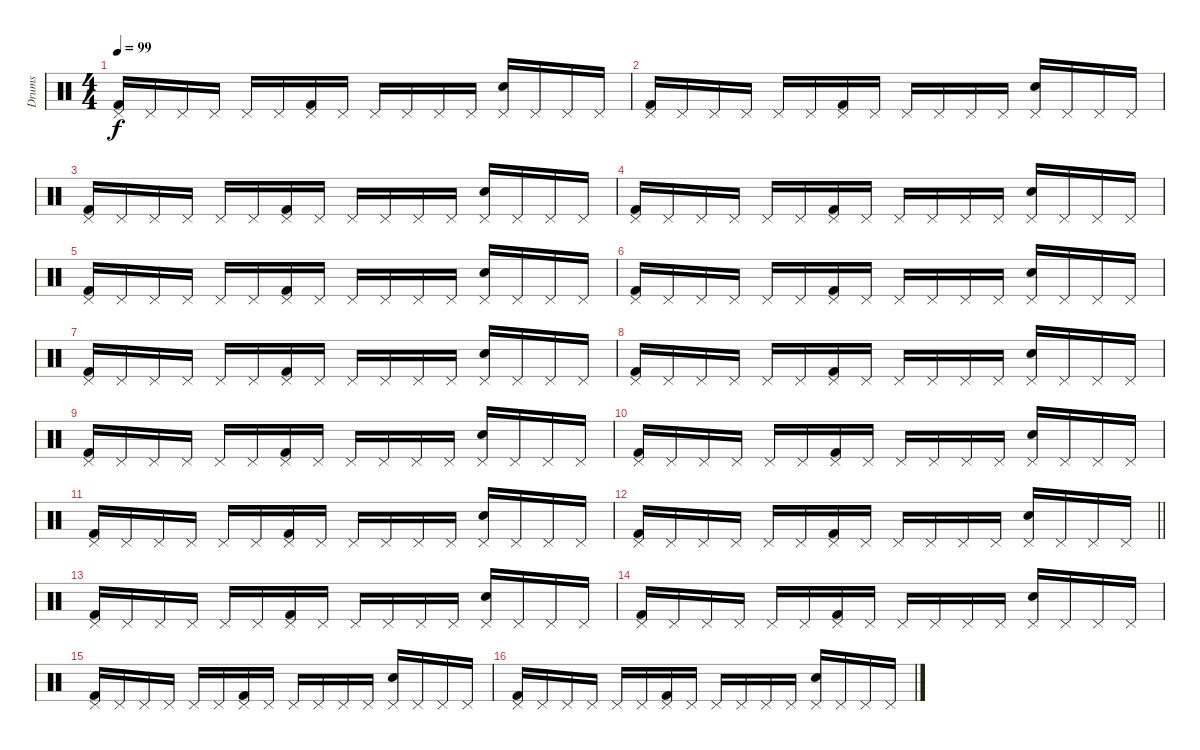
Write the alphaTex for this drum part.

\track ("Drums" "Drums") {instrument percussion}
\staff {score}
\articulation defaults
\ts (4 4)
\tempo 99
\clef neutral
\ks c
("Pedal Hi-Hat (hit)" "Kick (hit) 2").16{dy f} "Pedal Hi-Hat (hit)".16 "Pedal Hi-Hat (hit)".16 "Pedal Hi-Hat (hit)".16 "Pedal Hi-Hat (hit)".16 "Pedal Hi-Hat (hit)".16 ("Pedal Hi-Hat (hit)" "Kick (hit) 2").16 "Pedal Hi-Hat (hit)".16 "Pedal Hi-Hat (hit)".16 "Pedal Hi-Hat (hit)".16 "Pedal Hi-Hat (hit)".16 "Pedal Hi-Hat (hit)".16 ("Pedal Hi-Hat (hit)" "Snare (hit) 2").16 "Pedal Hi-Hat (hit)".16 "Pedal Hi-Hat (hit)".16 "Pedal Hi-Hat (hit)".16 |
("Pedal Hi-Hat (hit)" "Kick (hit) 2").16 "Pedal Hi-Hat (hit)".16 "Pedal Hi-Hat (hit)".16 "Pedal Hi-Hat (hit)".16 "Pedal Hi-Hat (hit)".16 "Pedal Hi-Hat (hit)".16 ("Pedal Hi-Hat (hit)" "Kick (hit) 2").16 "Pedal Hi-Hat (hit)".16 "Pedal Hi-Hat (hit)".16 "Pedal Hi-Hat (hit)".16 "Pedal Hi-Hat (hit)".16 "Pedal Hi-Hat (hit)".16 ("Pedal Hi-Hat (hit)" "Snare (hit) 2").16 "Pedal Hi-Hat (hit)".16 "Pedal Hi-Hat (hit)".16 "Pedal Hi-Hat (hit)".16 |
("Pedal Hi-Hat (hit)" "Kick (hit) 2").16 "Pedal Hi-Hat (hit)".16 "Pedal Hi-Hat (hit)".16 "Pedal Hi-Hat (hit)".16 "Pedal Hi-Hat (hit)".16 "Pedal Hi-Hat (hit)".16 ("Pedal Hi-Hat (hit)" "Kick (hit) 2").16 "Pedal Hi-Hat (hit)".16 "Pedal Hi-Hat (hit)".16 "Pedal Hi-Hat (hit)".16 "Pedal Hi-Hat (hit)".16 "Pedal Hi-Hat (hit)".16 ("Pedal Hi-Hat (hit)" "Snare (hit) 2").16 "Pedal Hi-Hat (hit)".16 "Pedal Hi-Hat (hit)".16 "Pedal Hi-Hat (hit)".16 |
("Pedal Hi-Hat (hit)" "Kick (hit) 2").16 "Pedal Hi-Hat (hit)".16 "Pedal Hi-Hat (hit)".16 "Pedal Hi-Hat (hit)".16 "Pedal Hi-Hat (hit)".16 "Pedal Hi-Hat (hit)".16 ("Pedal Hi-Hat (hit)" "Kick (hit) 2").16 "Pedal Hi-Hat (hit)".16 "Pedal Hi-Hat (hit)".16 "Pedal Hi-Hat (hit)".16 "Pedal Hi-Hat (hit)".16 "Pedal Hi-Hat (hit)".16 ("Pedal Hi-Hat (hit)" "Snare (hit) 2").16 "Pedal Hi-Hat (hit)".16 "Pedal Hi-Hat (hit)".16 "Pedal Hi-Hat (hit)".16 |
("Pedal Hi-Hat (hit)" "Kick (hit) 2").16 "Pedal Hi-Hat (hit)".16 "Pedal Hi-Hat (hit)".16 "Pedal Hi-Hat (hit)".16 "Pedal Hi-Hat (hit)".16 "Pedal Hi-Hat (hit)".16 ("Pedal Hi-Hat (hit)" "Kick (hit) 2").16 "Pedal Hi-Hat (hit)".16 "Pedal Hi-Hat (hit)".16 "Pedal Hi-Hat (hit)".16 "Pedal Hi-Hat (hit)".16 "Pedal Hi-Hat (hit)".16 ("Pedal Hi-Hat (hit)" "Snare (hit) 2").16 "Pedal Hi-Hat (hit)".16 "Pedal Hi-Hat (hit)".16 "Pedal Hi-Hat (hit)".16 |
("Pedal Hi-Hat (hit)" "Kick (hit) 2").16 "Pedal Hi-Hat (hit)".16 "Pedal Hi-Hat (hit)".16 "Pedal Hi-Hat (hit)".16 "Pedal Hi-Hat (hit)".16 "Pedal Hi-Hat (hit)".16 ("Pedal Hi-Hat (hit)" "Kick (hit) 2").16 "Pedal Hi-Hat (hit)".16 "Pedal Hi-Hat (hit)".16 "Pedal Hi-Hat (hit)".16 "Pedal Hi-Hat (hit)".16 "Pedal Hi-Hat (hit)".16 ("Pedal Hi-Hat (hit)" "Snare (hit) 2").16 "Pedal Hi-Hat (hit)".16 "Pedal Hi-Hat (hit)".16 "Pedal Hi-Hat (hit)".16 |
("Pedal Hi-Hat (hit)" "Kick (hit) 2").16 "Pedal Hi-Hat (hit)".16 "Pedal Hi-Hat (hit)".16 "Pedal Hi-Hat (hit)".16 "Pedal Hi-Hat (hit)".16 "Pedal Hi-Hat (hit)".16 ("Pedal Hi-Hat (hit)" "Kick (hit) 2").16 "Pedal Hi-Hat (hit)".16 "Pedal Hi-Hat (hit)".16 "Pedal Hi-Hat (hit)".16 "Pedal Hi-Hat (hit)".16 "Pedal Hi-Hat (hit)".16 ("Pedal Hi-Hat (hit)" "Snare (hit) 2").16 "Pedal Hi-Hat (hit)".16 "Pedal Hi-Hat (hit)".16 "Pedal Hi-Hat (hit)".16 |
("Pedal Hi-Hat (hit)" "Kick (hit) 2").16 "Pedal Hi-Hat (hit)".16 "Pedal Hi-Hat (hit)".16 "Pedal Hi-Hat (hit)".16 "Pedal Hi-Hat (hit)".16 "Pedal Hi-Hat (hit)".16 ("Pedal Hi-Hat (hit)" "Kick (hit) 2").16 "Pedal Hi-Hat (hit)".16 "Pedal Hi-Hat (hit)".16 "Pedal Hi-Hat (hit)".16 "Pedal Hi-Hat (hit)".16 "Pedal Hi-Hat (hit)".16 ("Pedal Hi-Hat (hit)" "Snare (hit) 2").16 "Pedal Hi-Hat (hit)".16 "Pedal Hi-Hat (hit)".16 "Pedal Hi-Hat (hit)".16 |
("Pedal Hi-Hat (hit)" "Kick (hit) 2").16 "Pedal Hi-Hat (hit)".16 "Pedal Hi-Hat (hit)".16 "Pedal Hi-Hat (hit)".16 "Pedal Hi-Hat (hit)".16 "Pedal Hi-Hat (hit)".16 ("Pedal Hi-Hat (hit)" "Kick (hit) 2").16 "Pedal Hi-Hat (hit)".16 "Pedal Hi-Hat (hit)".16 "Pedal Hi-Hat (hit)".16 "Pedal Hi-Hat (hit)".16 "Pedal Hi-Hat (hit)".16 ("Pedal Hi-Hat (hit)" "Snare (hit) 2").16 "Pedal Hi-Hat (hit)".16 "Pedal Hi-Hat (hit)".16 "Pedal Hi-Hat (hit)".16 |
("Pedal Hi-Hat (hit)" "Kick (hit) 2").16 "Pedal Hi-Hat (hit)".16 "Pedal Hi-Hat (hit)".16 "Pedal Hi-Hat (hit)".16 "Pedal Hi-Hat (hit)".16 "Pedal Hi-Hat (hit)".16 ("Pedal Hi-Hat (hit)" "Kick (hit) 2").16 "Pedal Hi-Hat (hit)".16 "Pedal Hi-Hat (hit)".16 "Pedal Hi-Hat (hit)".16 "Pedal Hi-Hat (hit)".16 "Pedal Hi-Hat (hit)".16 ("Pedal Hi-Hat (hit)" "Snare (hit) 2").16 "Pedal Hi-Hat (hit)".16 "Pedal Hi-Hat (hit)".16 "Pedal Hi-Hat (hit)".16 |
("Pedal Hi-Hat (hit)" "Kick (hit) 2").16 "Pedal Hi-Hat (hit)".16 "Pedal Hi-Hat (hit)".16 "Pedal Hi-Hat (hit)".16 "Pedal Hi-Hat (hit)".16 "Pedal Hi-Hat (hit)".16 ("Pedal Hi-Hat (hit)" "Kick (hit) 2").16 "Pedal Hi-Hat (hit)".16 "Pedal Hi-Hat (hit)".16 "Pedal Hi-Hat (hit)".16 "Pedal Hi-Hat (hit)".16 "Pedal Hi-Hat (hit)".16 ("Pedal Hi-Hat (hit)" "Snare (hit) 2").16 "Pedal Hi-Hat (hit)".16 "Pedal Hi-Hat (hit)".16 "Pedal Hi-Hat (hit)".16 |
\barLineRight lightlight
("Pedal Hi-Hat (hit)" "Kick (hit) 2").16 "Pedal Hi-Hat (hit)".16 "Pedal Hi-Hat (hit)".16 "Pedal Hi-Hat (hit)".16 "Pedal Hi-Hat (hit)".16 "Pedal Hi-Hat (hit)".16 ("Pedal Hi-Hat (hit)" "Kick (hit) 2").16 "Pedal Hi-Hat (hit)".16 "Pedal Hi-Hat (hit)".16 "Pedal Hi-Hat (hit)".16 "Pedal Hi-Hat (hit)".16 "Pedal Hi-Hat (hit)".16 ("Pedal Hi-Hat (hit)" "Snare (hit) 2").16 "Pedal Hi-Hat (hit)".16 "Pedal Hi-Hat (hit)".16 "Pedal Hi-Hat (hit)".16 |
("Pedal Hi-Hat (hit)" "Kick (hit) 2").16 "Pedal Hi-Hat (hit)".16 "Pedal Hi-Hat (hit)".16 "Pedal Hi-Hat (hit)".16 "Pedal Hi-Hat (hit)".16 "Pedal Hi-Hat (hit)".16 ("Pedal Hi-Hat (hit)" "Kick (hit) 2").16 "Pedal Hi-Hat (hit)".16 "Pedal Hi-Hat (hit)".16 "Pedal Hi-Hat (hit)".16 "Pedal Hi-Hat (hit)".16 "Pedal Hi-Hat (hit)".16 ("Pedal Hi-Hat (hit)" "Snare (hit) 2").16 "Pedal Hi-Hat (hit)".16 "Pedal Hi-Hat (hit)".16 "Pedal Hi-Hat (hit)".16 |
("Pedal Hi-Hat (hit)" "Kick (hit) 2").16 "Pedal Hi-Hat (hit)".16 "Pedal Hi-Hat (hit)".16 "Pedal Hi-Hat (hit)".16 "Pedal Hi-Hat (hit)".16 "Pedal Hi-Hat (hit)".16 ("Pedal Hi-Hat (hit)" "Kick (hit) 2").16 "Pedal Hi-Hat (hit)".16 "Pedal Hi-Hat (hit)".16 "Pedal Hi-Hat (hit)".16 "Pedal Hi-Hat (hit)".16 "Pedal Hi-Hat (hit)".16 ("Pedal Hi-Hat (hit)" "Snare (hit) 2").16 "Pedal Hi-Hat (hit)".16 "Pedal Hi-Hat (hit)".16 "Pedal Hi-Hat (hit)".16 |
("Pedal Hi-Hat (hit)" "Kick (hit) 2").16 "Pedal Hi-Hat (hit)".16 "Pedal Hi-Hat (hit)".16 "Pedal Hi-Hat (hit)".16 "Pedal Hi-Hat (hit)".16 "Pedal Hi-Hat (hit)".16 ("Pedal Hi-Hat (hit)" "Kick (hit) 2").16 "Pedal Hi-Hat (hit)".16 "Pedal Hi-Hat (hit)".16 "Pedal Hi-Hat (hit)".16 "Pedal Hi-Hat (hit)".16 "Pedal Hi-Hat (hit)".16 ("Pedal Hi-Hat (hit)" "Snare (hit) 2").16 "Pedal Hi-Hat (hit)".16 "Pedal Hi-Hat (hit)".16 "Pedal Hi-Hat (hit)".16 |
("Pedal Hi-Hat (hit)" "Kick (hit) 2").16 "Pedal Hi-Hat (hit)".16 "Pedal Hi-Hat (hit)".16 "Pedal Hi-Hat (hit)".16 "Pedal Hi-Hat (hit)".16 "Pedal Hi-Hat (hit)".16 ("Pedal Hi-Hat (hit)" "Kick (hit) 2").16 "Pedal Hi-Hat (hit)".16 "Pedal Hi-Hat (hit)".16 "Pedal Hi-Hat (hit)".16 "Pedal Hi-Hat (hit)".16 "Pedal Hi-Hat (hit)".16 ("Pedal Hi-Hat (hit)" "Snare (hit) 2").16 "Pedal Hi-Hat (hit)".16 "Pedal Hi-Hat (hit)".16 "Pedal Hi-Hat (hit)".16
